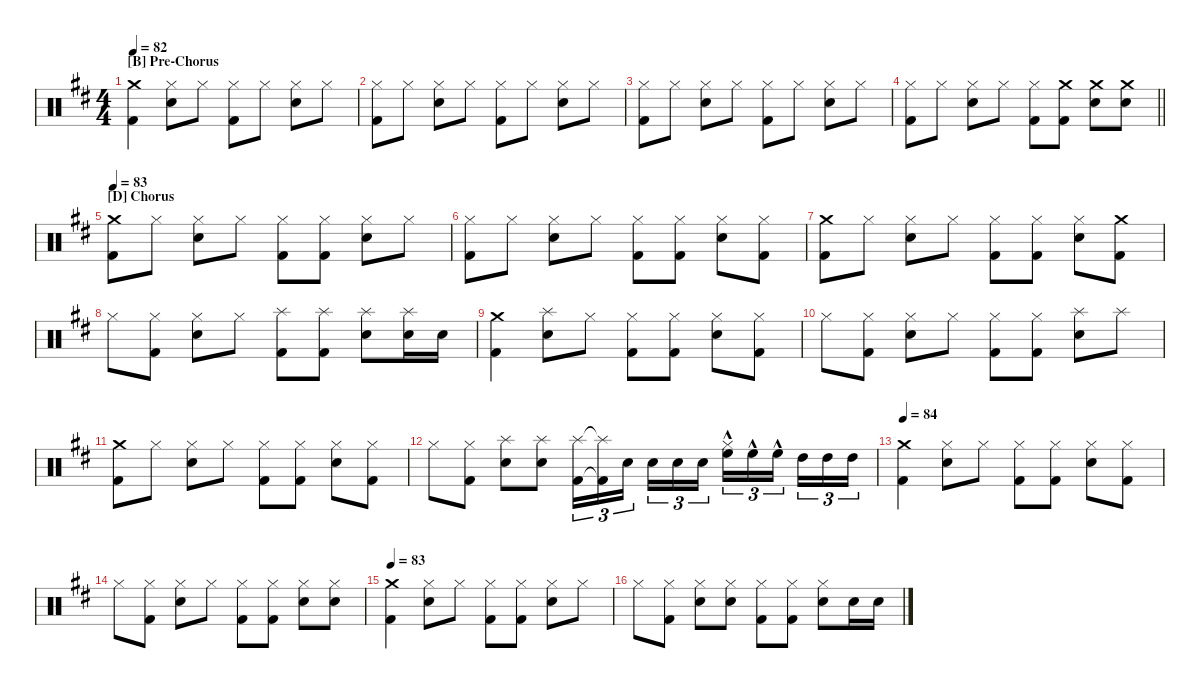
\defaultSystemsLayout 4
\hideDynamics
\bracketExtendMode nobrackets
\singleTrackTrackNamePolicy hidden
\multiTrackTrackNamePolicy hidden
\otherSystemsTrackNameOrientation horizontal
\track ("Drumkit" "Drums") {defaultSystemsLayout 4 instrument percussion}
\staff {score}
\articulation defaults
\ts (4 4)
\section ("B" "Pre-Chorus")
\tempo 82
\clef neutral
\ks d
("Kick (hit) 2"{acc forcenatural} "Crash medium (hit)"{acc forcenatural}).4{dy f beam Down} ("Snare (hit) 2"{acc forcenatural} "Hi-Hat (closed)"{acc forcenatural}).8{beam Down} "Hi-Hat (closed)"{acc forcenatural}.8{beam Down} ("Kick (hit) 2"{acc forcenatural} "Hi-Hat (closed)"{acc forcenatural}).8{beam Down} "Hi-Hat (closed)"{acc forcenatural}.8{beam Down} ("Snare (hit) 2"{acc forcenatural} "Hi-Hat (closed)"{acc forcenatural}).8{beam Down} "Hi-Hat (closed)"{acc forcenatural}.8{beam Down} |
("Kick (hit) 2"{acc forcenatural} "Hi-Hat (closed)"{acc forcenatural}).8{beam Down} "Hi-Hat (closed)"{acc forcenatural}.8{beam Down} ("Snare (hit) 2"{acc forcenatural} "Hi-Hat (closed)"{acc forcenatural}).8{beam Down} "Hi-Hat (closed)"{acc forcenatural}.8{beam Down} ("Kick (hit) 2"{acc forcenatural} "Hi-Hat (closed)"{acc forcenatural}).8{beam Down} "Hi-Hat (closed)"{acc forcenatural}.8{beam Down} ("Snare (hit) 2"{acc forcenatural} "Hi-Hat (closed)"{acc forcenatural}).8{beam Down} "Hi-Hat (closed)"{acc forcenatural}.8{beam Down} |
("Kick (hit) 2"{acc forcenatural} "Hi-Hat (closed)"{acc forcenatural}).8{beam Down} "Hi-Hat (closed)"{acc forcenatural}.8{beam Down} ("Snare (hit) 2"{acc forcenatural} "Hi-Hat (closed)"{acc forcenatural}).8{beam Down} "Hi-Hat (closed)"{acc forcenatural}.8{beam Down} ("Kick (hit) 2"{acc forcenatural} "Hi-Hat (closed)"{acc forcenatural}).8{beam Down} "Hi-Hat (closed)"{acc forcenatural}.8{beam Down} ("Snare (hit) 2"{acc forcenatural} "Hi-Hat (closed)"{acc forcenatural}).8{beam Down} "Hi-Hat (closed)"{acc forcenatural}.8{beam Down} |
\barLineRight lightlight
("Kick (hit) 2"{acc forcenatural} "Hi-Hat (closed)"{acc forcenatural}).8{beam Down} "Hi-Hat (closed)"{acc forcenatural}.8{beam Down} ("Snare (hit) 2"{acc forcenatural} "Hi-Hat (closed)"{acc forcenatural}).8{beam Down} "Hi-Hat (closed)"{acc forcenatural}.8{beam Down} ("Kick (hit) 2"{acc forcenatural} "Hi-Hat (closed)"{acc forcenatural}).8{beam Down} ("Kick (hit) 2"{acc forcenatural} "Crash medium (hit)"{acc forcenatural}).8{beam Down} ("Snare (hit) 2"{acc forcenatural} "Crash medium (hit)"{acc forcenatural}).8{beam Down} ("Snare (hit) 2"{acc forcenatural} "Crash medium (hit)"{acc forcenatural}).8{beam Down} |
\section ("D" "Chorus")
\tempo 83
("Kick (hit) 2"{acc forcenatural} "Crash medium (hit)"{acc forcenatural}).8{beam Down} "Hi-Hat (closed)"{acc forcenatural}.8{beam Down} ("Snare (hit) 2"{acc forcenatural} "Hi-Hat (closed)"{acc forcenatural}).8{beam Down} "Hi-Hat (closed)"{acc forcenatural}.8{beam Down} ("Kick (hit) 2"{acc forcenatural} "Hi-Hat (closed)"{acc forcenatural}).8{beam Down} ("Kick (hit) 2"{acc forcenatural} "Hi-Hat (closed)"{acc forcenatural}).8{beam Down} ("Snare (hit) 2"{acc forcenatural} "Hi-Hat (closed)"{acc forcenatural}).8{beam Down} "Hi-Hat (closed)"{acc forcenatural}.8{beam Down} |
("Kick (hit) 2"{acc forcenatural} "Hi-Hat (closed)"{acc forcenatural}).8{beam Down} "Hi-Hat (closed)"{acc forcenatural}.8{beam Down} ("Snare (hit) 2"{acc forcenatural} "Hi-Hat (closed)"{acc forcenatural}).8{beam Down} "Hi-Hat (closed)"{acc forcenatural}.8{beam Down} ("Kick (hit) 2"{acc forcenatural} "Hi-Hat (closed)"{acc forcenatural}).8{beam Down} ("Kick (hit) 2"{acc forcenatural} "Hi-Hat (closed)"{acc forcenatural}).8{beam Down} ("Snare (hit) 2"{acc forcenatural} "Hi-Hat (closed)"{acc forcenatural}).8{beam Down} ("Kick (hit) 2"{acc forcenatural} "Hi-Hat (closed)"{acc forcenatural}).8{beam Down} |
("Kick (hit) 2"{acc forcenatural} "Crash medium (hit)"{acc forcenatural}).8{beam Down} "Hi-Hat (closed)"{acc forcenatural}.8{beam Down} ("Snare (hit) 2"{acc forcenatural} "Hi-Hat (closed)"{acc forcenatural}).8{beam Down} "Hi-Hat (closed)"{acc forcenatural}.8{beam Down} ("Kick (hit) 2"{acc forcenatural} "Hi-Hat (closed)"{acc forcenatural}).8{beam Down} ("Kick (hit) 2"{acc forcenatural} "Hi-Hat (closed)"{acc forcenatural}).8{beam Down} ("Snare (hit) 2"{acc forcenatural} "Hi-Hat (closed)"{acc forcenatural}).8{beam Down} ("Kick (hit) 2"{acc forcenatural} "Crash medium (hit)"{acc forcenatural}).8{beam Down} |
"Hi-Hat (closed)"{acc forcenatural}.8{beam Down} ("Kick (hit) 2"{acc forcenatural} "Hi-Hat (closed)"{acc forcenatural}).8{beam Down} ("Snare (hit) 2"{acc forcenatural} "Hi-Hat (closed)"{acc forcenatural}).8{beam Down} "Hi-Hat (closed)"{acc forcenatural}.8{beam Down} ("Kick (hit) 2"{acc forcenatural} "Splash (hit)"{acc forcenatural}).8{beam Down} ("Kick (hit) 2"{acc forcenatural} "Splash (hit)"{acc forcenatural}).8{beam Down} ("Snare (hit) 2"{acc forcenatural} "Splash (hit)"{acc forcenatural}).8{beam Down} ("Snare (hit) 2"{acc forcenatural} "Splash (hit)"{acc forcenatural}).16{beam Down} "Snare (hit) 2"{acc forcenatural}.16{beam Down} |
("Kick (hit) 2"{acc forcenatural} "Crash medium (hit)"{acc forcenatural}).4{beam Down} ("Snare (hit) 2"{acc forcenatural} "Splash (hit)"{acc forcenatural}).8{beam Down} "Hi-Hat (closed)"{acc forcenatural}.8{beam Down} ("Kick (hit) 2"{acc forcenatural} "Hi-Hat (closed)"{acc forcenatural}).8{beam Down} ("Kick (hit) 2"{acc forcenatural} "Hi-Hat (closed)"{acc forcenatural}).8{beam Down} ("Snare (hit) 2"{acc forcenatural} "Hi-Hat (closed)"{acc forcenatural}).8{beam Down} ("Kick (hit) 2"{acc forcenatural} "Hi-Hat (closed)"{acc forcenatural}).8{beam Down} |
"Hi-Hat (closed)"{acc forcenatural}.8{beam Down} ("Kick (hit) 2"{acc forcenatural} "Hi-Hat (closed)"{acc forcenatural}).8{beam Down} ("Snare (hit) 2"{acc forcenatural} "Hi-Hat (closed)"{acc forcenatural}).8{beam Down} "Hi-Hat (closed)"{acc forcenatural}.8{beam Down} ("Kick (hit) 2"{acc forcenatural} "Hi-Hat (closed)"{acc forcenatural}).8{beam Down} ("Kick (hit) 2"{acc forcenatural} "Hi-Hat (closed)"{acc forcenatural}).8{beam Down} ("Snare (hit) 2"{acc forcenatural} "Splash (hit)"{acc forcenatural}).8{beam Down} "Splash (hit)"{acc forcenatural}.8{beam Down} |
("Kick (hit) 2"{acc forcenatural} "Crash medium (hit)"{acc forcenatural}).8{beam Down} "Hi-Hat (closed)"{acc forcenatural}.8{beam Down} ("Snare (hit) 2"{acc forcenatural} "Hi-Hat (closed)"{acc forcenatural}).8{beam Down} "Hi-Hat (closed)"{acc forcenatural}.8{beam Down} ("Kick (hit) 2"{acc forcenatural} "Hi-Hat (closed)"{acc forcenatural}).8{beam Down} ("Kick (hit) 2"{acc forcenatural} "Hi-Hat (closed)"{acc forcenatural}).8{beam Down} ("Snare (hit) 2"{acc forcenatural} "Hi-Hat (closed)"{acc forcenatural}).8{beam Down} ("Kick (hit) 2"{acc forcenatural} "Hi-Hat (closed)"{acc forcenatural}).8{beam Down} |
"Hi-Hat (closed)"{acc forcenatural}.8{beam Down} ("Kick (hit) 2"{acc forcenatural} "Hi-Hat (closed)"{acc forcenatural}).8{beam Down} ("Snare (hit) 2"{acc forcenatural} "Splash (hit)"{acc forcenatural}).8{beam Down} ("Snare (hit) 2"{acc forcenatural} "Splash (hit)"{acc forcenatural}).8{beam Down} ("Kick (hit) 2"{acc forcenatural} "Splash (hit)"{acc forcenatural}).16{tu (3 2) beam Down} ("Kick (hit) 2"{t acc forcenatural} "Splash (hit)"{t acc forcenatural}).16{tu (3 2) beam Down} "Snare (hit) 2"{acc forcenatural}.16{tu (3 2) beam Down} "Snare (hit) 2"{acc forcenatural}.16{tu (3 2) beam Down} "Snare (hit) 2"{acc forcenatural}.16{tu (3 2) beam Down} "Snare (hit) 2"{acc forcenatural}.16{tu (3 2) beam Down} ("High Floor Tom (hit)"{hac acc forcenatural} "Hi-Hat (closed)"{hac acc forcenatural}).16{tu (3 2) beam Down} "High Floor Tom (hit)"{hac acc forcenatural}.16{tu (3 2) beam Down} "High Floor Tom (hit)"{hac acc forcenatural}.16{tu (3 2) beam Down} "High Tom (hit)"{acc forcenatural}.16{tu (3 2) beam Down} "High Tom (hit)"{acc forcenatural}.16{tu (3 2) beam Down} "High Tom (hit)"{acc forcenatural}.16{tu (3 2) beam Down} |
\tempo 84
("Kick (hit) 2"{acc forcenatural} "Crash medium (hit)"{acc forcenatural}).4{beam Down} ("Snare (hit) 2"{acc forcenatural} "Hi-Hat (closed)"{acc forcenatural}).8{beam Down} "Hi-Hat (closed)"{acc forcenatural}.8{beam Down} ("Kick (hit) 2"{acc forcenatural} "Hi-Hat (closed)"{acc forcenatural}).8{beam Down} ("Kick (hit) 2"{acc forcenatural} "Hi-Hat (closed)"{acc forcenatural}).8{beam Down} ("Snare (hit) 2"{acc forcenatural} "Hi-Hat (closed)"{acc forcenatural}).8{beam Down} ("Kick (hit) 2"{acc forcenatural} "Hi-Hat (closed)"{acc forcenatural}).8{beam Down} |
"Hi-Hat (closed)"{acc forcenatural}.8{beam Down} ("Kick (hit) 2"{acc forcenatural} "Hi-Hat (closed)"{acc forcenatural}).8{beam Down} ("Snare (hit) 2"{acc forcenatural} "Hi-Hat (closed)"{acc forcenatural}).8{beam Down} "Hi-Hat (closed)"{acc forcenatural}.8{beam Down} ("Kick (hit) 2"{acc forcenatural} "Hi-Hat (closed)"{acc forcenatural}).8{beam Down} ("Kick (hit) 2"{acc forcenatural} "Hi-Hat (closed)"{acc forcenatural}).8{beam Down} ("Snare (hit) 2"{acc forcenatural} "Hi-Hat (closed)"{acc forcenatural}).8{beam Down} ("Snare (hit) 2"{acc forcenatural} "Hi-Hat (closed)"{acc forcenatural}).8{beam Down} |
\tempo 83
("Kick (hit) 2"{acc forcenatural} "Crash medium (hit)"{acc forcenatural}).4{beam Down} ("Snare (hit) 2"{acc forcenatural} "Hi-Hat (closed)"{acc forcenatural}).8{beam Down} "Hi-Hat (closed)"{acc forcenatural}.8{beam Down} ("Kick (hit) 2"{acc forcenatural} "Hi-Hat (closed)"{acc forcenatural}).8{beam Down} ("Kick (hit) 2"{acc forcenatural} "Hi-Hat (closed)"{acc forcenatural}).8{beam Down} ("Snare (hit) 2"{acc forcenatural} "Hi-Hat (closed)"{acc forcenatural}).8{beam Down} "Hi-Hat (closed)"{acc forcenatural}.8{beam Down} |
"Hi-Hat (closed)"{acc forcenatural}.8{beam Down} ("Kick (hit) 2"{acc forcenatural} "Hi-Hat (closed)"{acc forcenatural}).8{beam Down} ("Snare (hit) 2"{acc forcenatural} "Hi-Hat (closed)"{acc forcenatural}).8{beam Down} ("Snare (hit) 2"{acc forcenatural} "Hi-Hat (closed)"{acc forcenatural}).8{beam Down} ("Kick (hit) 2"{acc forcenatural} "Hi-Hat (closed)"{acc forcenatural}).8{beam Down} ("Kick (hit) 2"{acc forcenatural} "Hi-Hat (closed)"{acc forcenatural}).8{beam Down} ("Snare (hit) 2"{acc forcenatural} "Hi-Hat (closed)"{acc forcenatural}).8{beam Down} "Snare (hit) 2"{acc forcenatural}.16{beam Down} "Snare (hit) 2"{acc forcenatural}.16{beam Down}
